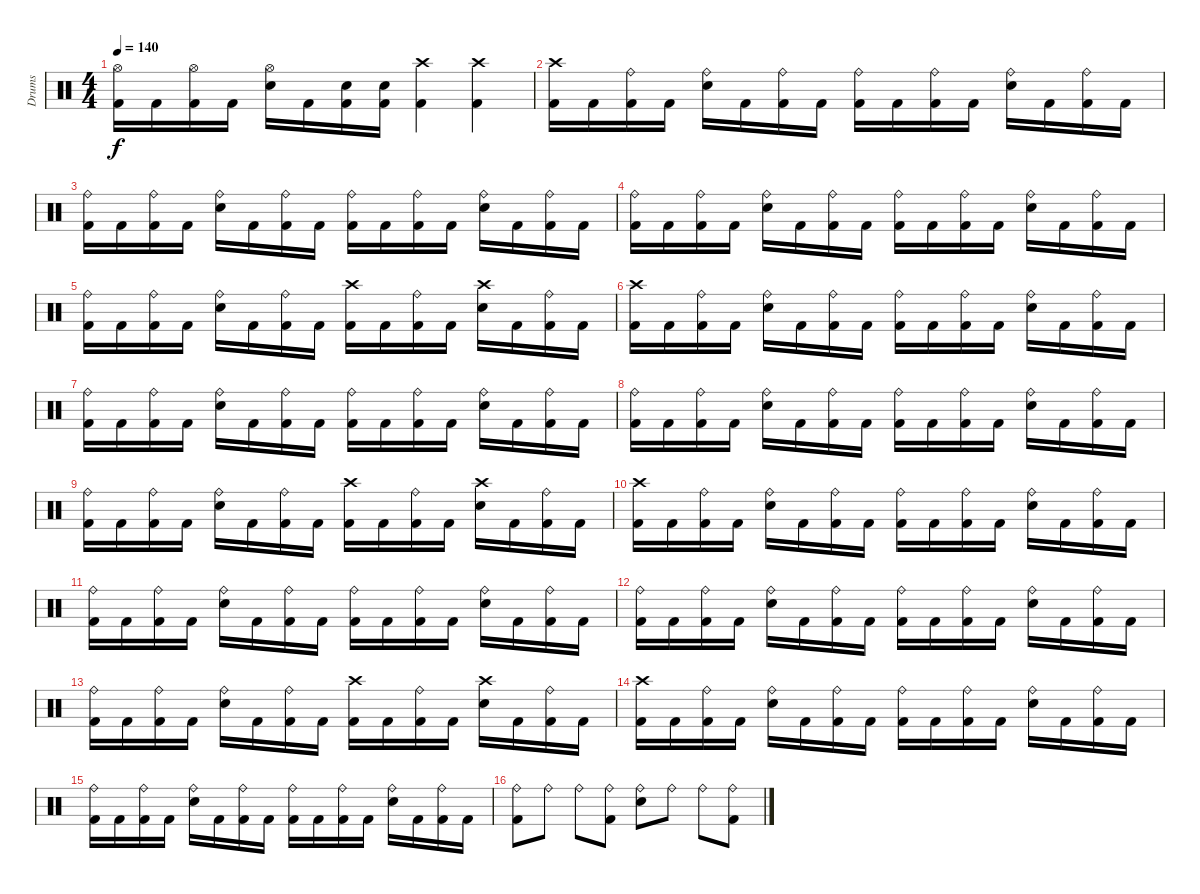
\track ("Drums" "Drums") {instrument percussion}
\staff {score}
\articulation defaults
\ts (4 4)
\tempo 140
\clef neutral
\ks c
("Hi-Hat (open)" "Kick (hit) 2").16{dy f} "Kick (hit) 2".16 ("Hi-Hat (open)" "Kick (hit) 2").16 "Kick (hit) 2".16 ("Hi-Hat (open)" "Snare (hit) 2").16 "Kick (hit) 2".16 ("Snare (hit) 2" "Kick (hit) 2").16 ("Snare (hit) 2" "Kick (hit) 2").16 ("Crash high (hit)" "Kick (hit) 2").4 ("Crash high (hit)" "Kick (hit) 2").4 |
("Crash high (hit)" "Kick (hit) 2").16 "Kick (hit) 2".16 ("Ride (bell)" "Kick (hit) 2").16 "Kick (hit) 2".16 ("Ride (bell)" "Snare (hit) 2").16 "Kick (hit) 2".16 ("Ride (bell)" "Kick (hit) 2").16 "Kick (hit) 2".16 ("Ride (bell)" "Kick (hit) 2").16 "Kick (hit) 2".16 ("Ride (bell)" "Kick (hit) 2").16 "Kick (hit) 2".16 ("Ride (bell)" "Snare (hit) 2").16 "Kick (hit) 2".16 ("Ride (bell)" "Kick (hit) 2").16 "Kick (hit) 2".16 |
("Ride (bell)" "Kick (hit) 2").16 "Kick (hit) 2".16 ("Ride (bell)" "Kick (hit) 2").16 "Kick (hit) 2".16 ("Ride (bell)" "Snare (hit) 2").16 "Kick (hit) 2".16 ("Ride (bell)" "Kick (hit) 2").16 "Kick (hit) 2".16 ("Ride (bell)" "Kick (hit) 2").16 "Kick (hit) 2".16 ("Ride (bell)" "Kick (hit) 2").16 "Kick (hit) 2".16 ("Ride (bell)" "Snare (hit) 2").16 "Kick (hit) 2".16 ("Ride (bell)" "Kick (hit) 2").16 "Kick (hit) 2".16 |
("Ride (bell)" "Kick (hit) 2").16 "Kick (hit) 2".16 ("Ride (bell)" "Kick (hit) 2").16 "Kick (hit) 2".16 ("Ride (bell)" "Snare (hit) 2").16 "Kick (hit) 2".16 ("Ride (bell)" "Kick (hit) 2").16 "Kick (hit) 2".16 ("Ride (bell)" "Kick (hit) 2").16 "Kick (hit) 2".16 ("Ride (bell)" "Kick (hit) 2").16 "Kick (hit) 2".16 ("Ride (bell)" "Snare (hit) 2").16 "Kick (hit) 2".16 ("Ride (bell)" "Kick (hit) 2").16 "Kick (hit) 2".16 |
("Ride (bell)" "Kick (hit) 2").16 "Kick (hit) 2".16 ("Ride (bell)" "Kick (hit) 2").16 "Kick (hit) 2".16 ("Ride (bell)" "Snare (hit) 2").16 "Kick (hit) 2".16 ("Ride (bell)" "Kick (hit) 2").16 "Kick (hit) 2".16 ("Crash high (hit)" "Kick (hit) 2").16 "Kick (hit) 2".16 ("Ride (bell)" "Kick (hit) 2").16 "Kick (hit) 2".16 ("Crash high (hit)" "Snare (hit) 2").16 "Kick (hit) 2".16 ("Ride (bell)" "Kick (hit) 2").16 "Kick (hit) 2".16 |
("Crash high (hit)" "Kick (hit) 2").16 "Kick (hit) 2".16 ("Ride (bell)" "Kick (hit) 2").16 "Kick (hit) 2".16 ("Ride (bell)" "Snare (hit) 2").16 "Kick (hit) 2".16 ("Ride (bell)" "Kick (hit) 2").16 "Kick (hit) 2".16 ("Ride (bell)" "Kick (hit) 2").16 "Kick (hit) 2".16 ("Ride (bell)" "Kick (hit) 2").16 "Kick (hit) 2".16 ("Ride (bell)" "Snare (hit) 2").16 "Kick (hit) 2".16 ("Ride (bell)" "Kick (hit) 2").16 "Kick (hit) 2".16 |
("Ride (bell)" "Kick (hit) 2").16 "Kick (hit) 2".16 ("Ride (bell)" "Kick (hit) 2").16 "Kick (hit) 2".16 ("Ride (bell)" "Snare (hit) 2").16 "Kick (hit) 2".16 ("Ride (bell)" "Kick (hit) 2").16 "Kick (hit) 2".16 ("Ride (bell)" "Kick (hit) 2").16 "Kick (hit) 2".16 ("Ride (bell)" "Kick (hit) 2").16 "Kick (hit) 2".16 ("Ride (bell)" "Snare (hit) 2").16 "Kick (hit) 2".16 ("Ride (bell)" "Kick (hit) 2").16 "Kick (hit) 2".16 |
("Ride (bell)" "Kick (hit) 2").16 "Kick (hit) 2".16 ("Ride (bell)" "Kick (hit) 2").16 "Kick (hit) 2".16 ("Ride (bell)" "Snare (hit) 2").16 "Kick (hit) 2".16 ("Ride (bell)" "Kick (hit) 2").16 "Kick (hit) 2".16 ("Ride (bell)" "Kick (hit) 2").16 "Kick (hit) 2".16 ("Ride (bell)" "Kick (hit) 2").16 "Kick (hit) 2".16 ("Ride (bell)" "Snare (hit) 2").16 "Kick (hit) 2".16 ("Ride (bell)" "Kick (hit) 2").16 "Kick (hit) 2".16 |
("Ride (bell)" "Kick (hit) 2").16 "Kick (hit) 2".16 ("Ride (bell)" "Kick (hit) 2").16 "Kick (hit) 2".16 ("Ride (bell)" "Snare (hit) 2").16 "Kick (hit) 2".16 ("Ride (bell)" "Kick (hit) 2").16 "Kick (hit) 2".16 ("Crash high (hit)" "Kick (hit) 2").16 "Kick (hit) 2".16 ("Ride (bell)" "Kick (hit) 2").16 "Kick (hit) 2".16 ("Crash high (hit)" "Snare (hit) 2").16 "Kick (hit) 2".16 ("Ride (bell)" "Kick (hit) 2").16 "Kick (hit) 2".16 |
("Crash high (hit)" "Kick (hit) 2").16 "Kick (hit) 2".16 ("Ride (bell)" "Kick (hit) 2").16 "Kick (hit) 2".16 ("Ride (bell)" "Snare (hit) 2").16 "Kick (hit) 2".16 ("Ride (bell)" "Kick (hit) 2").16 "Kick (hit) 2".16 ("Ride (bell)" "Kick (hit) 2").16 "Kick (hit) 2".16 ("Ride (bell)" "Kick (hit) 2").16 "Kick (hit) 2".16 ("Ride (bell)" "Snare (hit) 2").16 "Kick (hit) 2".16 ("Ride (bell)" "Kick (hit) 2").16 "Kick (hit) 2".16 |
("Ride (bell)" "Kick (hit) 2").16 "Kick (hit) 2".16 ("Ride (bell)" "Kick (hit) 2").16 "Kick (hit) 2".16 ("Ride (bell)" "Snare (hit) 2").16 "Kick (hit) 2".16 ("Ride (bell)" "Kick (hit) 2").16 "Kick (hit) 2".16 ("Ride (bell)" "Kick (hit) 2").16 "Kick (hit) 2".16 ("Ride (bell)" "Kick (hit) 2").16 "Kick (hit) 2".16 ("Ride (bell)" "Snare (hit) 2").16 "Kick (hit) 2".16 ("Ride (bell)" "Kick (hit) 2").16 "Kick (hit) 2".16 |
("Ride (bell)" "Kick (hit) 2").16 "Kick (hit) 2".16 ("Ride (bell)" "Kick (hit) 2").16 "Kick (hit) 2".16 ("Ride (bell)" "Snare (hit) 2").16 "Kick (hit) 2".16 ("Ride (bell)" "Kick (hit) 2").16 "Kick (hit) 2".16 ("Ride (bell)" "Kick (hit) 2").16 "Kick (hit) 2".16 ("Ride (bell)" "Kick (hit) 2").16 "Kick (hit) 2".16 ("Ride (bell)" "Snare (hit) 2").16 "Kick (hit) 2".16 ("Ride (bell)" "Kick (hit) 2").16 "Kick (hit) 2".16 |
("Ride (bell)" "Kick (hit) 2").16 "Kick (hit) 2".16 ("Ride (bell)" "Kick (hit) 2").16 "Kick (hit) 2".16 ("Ride (bell)" "Snare (hit) 2").16 "Kick (hit) 2".16 ("Ride (bell)" "Kick (hit) 2").16 "Kick (hit) 2".16 ("Crash high (hit)" "Kick (hit) 2").16 "Kick (hit) 2".16 ("Ride (bell)" "Kick (hit) 2").16 "Kick (hit) 2".16 ("Crash high (hit)" "Snare (hit) 2").16 "Kick (hit) 2".16 ("Ride (bell)" "Kick (hit) 2").16 "Kick (hit) 2".16 |
("Crash high (hit)" "Kick (hit) 2").16 "Kick (hit) 2".16 ("Ride (bell)" "Kick (hit) 2").16 "Kick (hit) 2".16 ("Ride (bell)" "Snare (hit) 2").16 "Kick (hit) 2".16 ("Ride (bell)" "Kick (hit) 2").16 "Kick (hit) 2".16 ("Ride (bell)" "Kick (hit) 2").16 "Kick (hit) 2".16 ("Ride (bell)" "Kick (hit) 2").16 "Kick (hit) 2".16 ("Ride (bell)" "Snare (hit) 2").16 "Kick (hit) 2".16 ("Ride (bell)" "Kick (hit) 2").16 "Kick (hit) 2".16 |
("Ride (bell)" "Kick (hit) 2").16 "Kick (hit) 2".16 ("Ride (bell)" "Kick (hit) 2").16 "Kick (hit) 2".16 ("Ride (bell)" "Snare (hit) 2").16 "Kick (hit) 2".16 ("Ride (bell)" "Kick (hit) 2").16 "Kick (hit) 2".16 ("Ride (bell)" "Kick (hit) 2").16 "Kick (hit) 2".16 ("Ride (bell)" "Kick (hit) 2").16 "Kick (hit) 2".16 ("Ride (bell)" "Snare (hit) 2").16 "Kick (hit) 2".16 ("Ride (bell)" "Kick (hit) 2").16 "Kick (hit) 2".16 |
("Ride (bell)" "Kick (hit) 2").8 "Ride (bell)".8 "Ride (bell)".8 ("Ride (bell)" "Kick (hit) 2").8 ("Ride (bell)" "Snare (hit) 2").8 "Ride (bell)".8 "Ride (bell)".8 ("Ride (bell)" "Kick (hit) 2").8
